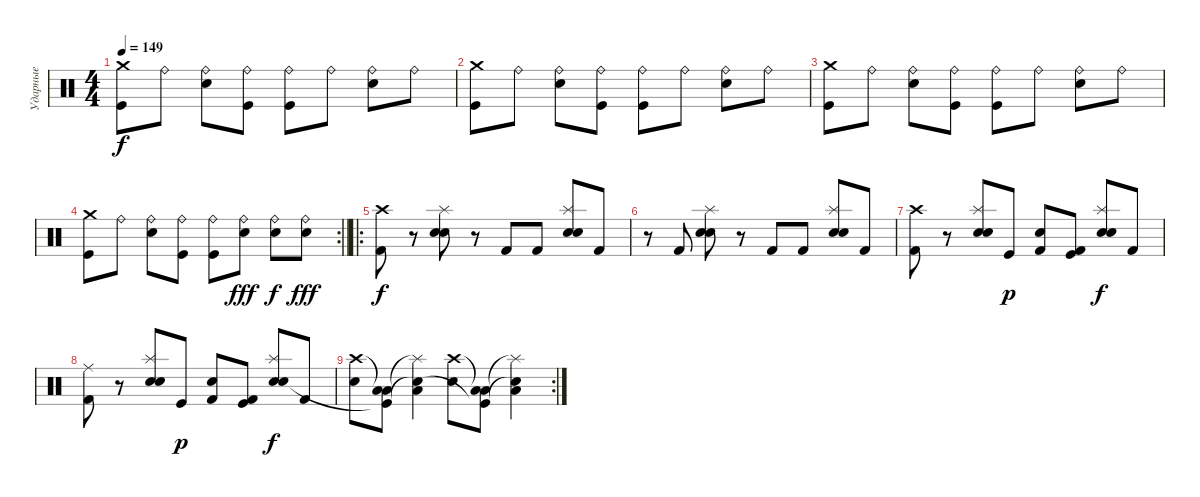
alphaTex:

\track ("Ударные" "Ударные") {instrument percussion}
\staff {score}
\articulation defaults
\ts (4 4)
\tempo 149
\clef neutral
\ks c
("Crash medium (hit)" "Kick (hit)").8{dy f} "Ride (bell)".8 ("Ride (bell)" "Electric Snare (hit)").8 ("Ride (bell)" "Kick (hit)").8 ("Ride (bell)" "Kick (hit)").8 "Ride (bell)".8 ("Ride (bell)" "Electric Snare (hit)").8 "Ride (bell)".8 |
("Crash medium (hit)" "Kick (hit)").8 "Ride (bell)".8 ("Ride (bell)" "Electric Snare (hit)").8 ("Ride (bell)" "Kick (hit)").8 ("Ride (bell)" "Kick (hit)").8 "Ride (bell)".8 ("Ride (bell)" "Electric Snare (hit)").8 "Ride (bell)".8 |
("Crash medium (hit)" "Kick (hit)").8 "Ride (bell)".8 ("Ride (bell)" "Electric Snare (hit)").8 ("Ride (bell)" "Kick (hit)").8 ("Ride (bell)" "Kick (hit)").8 "Ride (bell)".8 ("Ride (bell)" "Electric Snare (hit)").8 "Ride (bell)".8 |
\rc 2
\barLineRight lightlight
("Crash medium (hit)" "Kick (hit)").8 "Ride (bell)".8 ("Ride (bell)" "Electric Snare (hit)").8 ("Ride (bell)" "Kick (hit)").8 ("Ride (bell)" "Kick (hit)").8 ("Ride (bell)" "Electric Snare (hit)").8{dy fff} ("Ride (bell)" "Electric Snare (hit)").8{dy f} ("Ride (bell)" "Electric Snare (hit)").8{dy fff} |
\ro
("Crash high (hit)" "Kick (hit) 2").8{dy f} r.8 ("Splash (hit)" "Electric Snare (hit)" "Snare (hit) 2").8 r.8 "Kick (hit) 2".8 "Kick (hit) 2".8 ("Splash (hit)" "Electric Snare (hit)" "Snare (hit) 2").8 "Kick (hit) 2".8 |
r.8 "Kick (hit) 2".8 ("Splash (hit)" "Electric Snare (hit)" "Snare (hit) 2").8 r.8 "Kick (hit) 2".8 "Kick (hit) 2".8 ("Splash (hit)" "Electric Snare (hit)" "Snare (hit) 2").8 "Kick (hit) 2".8 |
("Crash high (hit)" "Kick (hit) 2").8 r.8 ("Splash (hit)" "Electric Snare (hit)" "Snare (hit) 2").8 "Kick (hit)".8{dy p} ("Snare (hit) 2" "Kick (hit) 2").8 ("Kick (hit)" "Kick (hit) 2").8 ("Splash (hit)" "Electric Snare (hit)" "Snare (hit) 2").8{dy f} "Kick (hit) 2".8 |
("Ride (middle)" "Kick (hit) 2").8 r.8 ("Splash (hit)" "Electric Snare (hit)" "Snare (hit) 2").8 "Kick (hit)".8{dy p} ("Snare (hit) 2" "Kick (hit) 2").8 ("Kick (hit)" "Kick (hit) 2").8 ("Splash (hit)" "Electric Snare (hit)" "Snare (hit) 2").8{dy f} "Kick (hit) 2".8 |
\rc 2
("Crash high (hit)" "Snare (hit) 2").8 ("Low Tom (hit)"{t} "Low Tom (hit)" "Kick (hit)"{t}).8 ("Splash (hit)"{t} "Low Tom (hit)" "Snare (hit) 2"{t}).4 ("Crash high (hit)" "Snare (hit) 2").8 ("Low Tom (hit)"{t} "Low Tom (hit)" "Kick (hit)"{t}).8 ("Splash (hit)"{t} "Low Tom (hit)" "Snare (hit) 2"{t}).4
